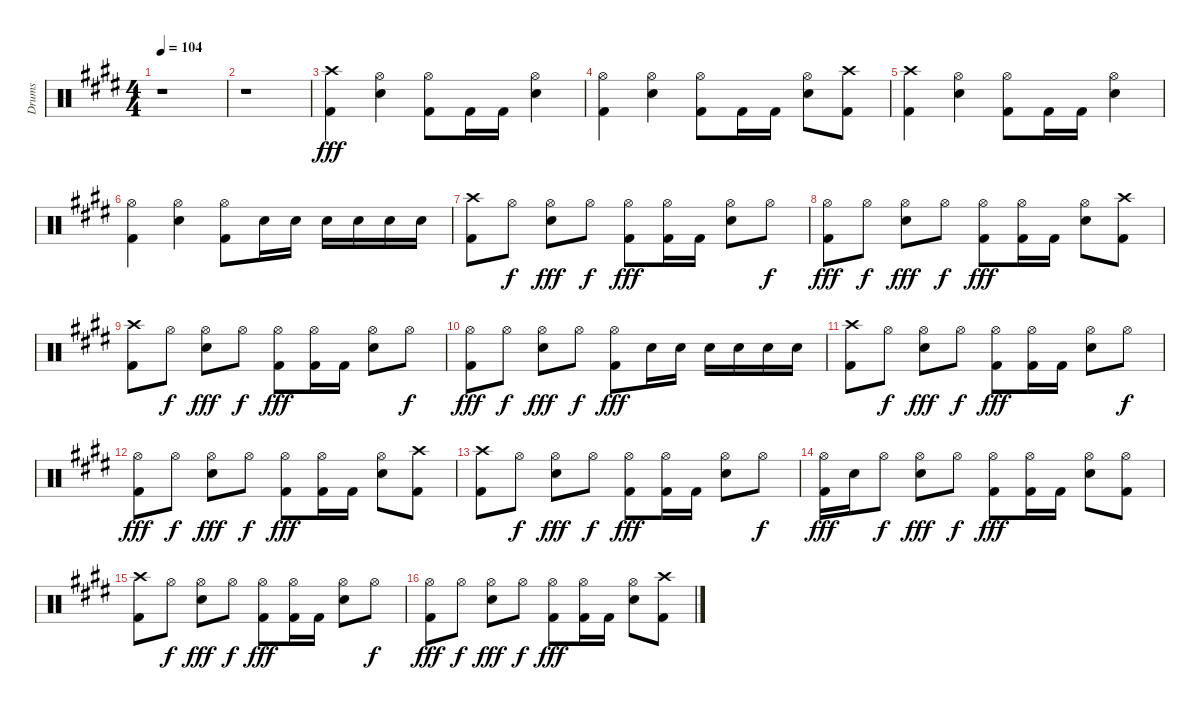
\track ("Drums" "Drums") {instrument percussion}
\staff {score}
\articulation defaults
\ts (4 4)
\tempo 104
\clef neutral
\ks e
r.1{dy fff} |
r.1 |
("Crash high (hit)" "Kick (hit) 2").4 ("Hi-Hat (open)" "Snare (hit) 2").4 ("Hi-Hat (open)" "Kick (hit) 2").8 "Kick (hit) 2".16 "Kick (hit) 2".16 ("Hi-Hat (open)" "Snare (hit) 2").4 |
("Hi-Hat (open)" "Kick (hit) 2").4 ("Hi-Hat (open)" "Snare (hit) 2").4 ("Hi-Hat (open)" "Kick (hit) 2").8 "Kick (hit) 2".16 "Kick (hit) 2".16 ("Hi-Hat (open)" "Snare (hit) 2").8 ("Crash high (hit)" "Kick (hit) 2").8 |
("Crash high (hit)" "Kick (hit) 2").4 ("Hi-Hat (open)" "Snare (hit) 2").4 ("Hi-Hat (open)" "Kick (hit) 2").8 "Kick (hit) 2".16 "Kick (hit) 2".16 ("Hi-Hat (open)" "Snare (hit) 2").4 |
("Hi-Hat (open)" "Kick (hit) 2").4 ("Hi-Hat (open)" "Snare (hit) 2").4 ("Hi-Hat (open)" "Kick (hit) 2").8 "Snare (hit) 2".16 "Snare (hit) 2".16 "Snare (hit) 2".16 "Snare (hit) 2".16 "Snare (hit) 2".16 "Snare (hit) 2".16 |
("Crash high (hit)" "Kick (hit) 2").8 "Hi-Hat (open)".8{dy f} ("Hi-Hat (open)" "Snare (hit) 2").8{dy fff} "Hi-Hat (open)".8{dy f} ("Hi-Hat (open)" "Kick (hit) 2").8{dy fff} ("Hi-Hat (open)" "Kick (hit) 2").16 "Kick (hit) 2".16 ("Hi-Hat (open)" "Snare (hit) 2").8 "Hi-Hat (open)".8{dy f} |
("Hi-Hat (open)" "Kick (hit) 2").8{dy fff} "Hi-Hat (open)".8{dy f} ("Hi-Hat (open)" "Snare (hit) 2").8{dy fff} "Hi-Hat (open)".8{dy f} ("Hi-Hat (open)" "Kick (hit) 2").8{dy fff} ("Hi-Hat (open)" "Kick (hit) 2").16 "Kick (hit) 2".16 ("Hi-Hat (open)" "Snare (hit) 2").8 ("Crash high (hit)" "Kick (hit) 2").8 |
("Crash high (hit)" "Kick (hit) 2").8 "Hi-Hat (open)".8{dy f} ("Hi-Hat (open)" "Snare (hit) 2").8{dy fff} "Hi-Hat (open)".8{dy f} ("Hi-Hat (open)" "Kick (hit) 2").8{dy fff} ("Hi-Hat (open)" "Kick (hit) 2").16 "Kick (hit) 2".16 ("Hi-Hat (open)" "Snare (hit) 2").8 "Hi-Hat (open)".8{dy f} |
("Hi-Hat (open)" "Kick (hit) 2").8{dy fff} "Hi-Hat (open)".8{dy f} ("Hi-Hat (open)" "Snare (hit) 2").8{dy fff} "Hi-Hat (open)".8{dy f} ("Hi-Hat (open)" "Kick (hit) 2").8{dy fff} "Snare (hit) 2".16 "Snare (hit) 2".16 "Snare (hit) 2".16 "Snare (hit) 2".16 "Snare (hit) 2".16 "Snare (hit) 2".16 |
("Crash high (hit)" "Kick (hit) 2").8 "Hi-Hat (open)".8{dy f} ("Hi-Hat (open)" "Snare (hit) 2").8{dy fff} "Hi-Hat (open)".8{dy f} ("Hi-Hat (open)" "Kick (hit) 2").8{dy fff} ("Hi-Hat (open)" "Kick (hit) 2").16 "Kick (hit) 2".16 ("Hi-Hat (open)" "Snare (hit) 2").8 "Hi-Hat (open)".8{dy f} |
("Hi-Hat (open)" "Kick (hit) 2").8{dy fff} "Hi-Hat (open)".8{dy f} ("Hi-Hat (open)" "Snare (hit) 2").8{dy fff} "Hi-Hat (open)".8{dy f} ("Hi-Hat (open)" "Kick (hit) 2").8{dy fff} ("Hi-Hat (open)" "Kick (hit) 2").16 "Kick (hit) 2".16 ("Hi-Hat (open)" "Snare (hit) 2").8 ("Crash high (hit)" "Kick (hit) 2").8 |
("Crash high (hit)" "Kick (hit) 2").8 "Hi-Hat (open)".8{dy f} ("Hi-Hat (open)" "Snare (hit) 2").8{dy fff} "Hi-Hat (open)".8{dy f} ("Hi-Hat (open)" "Kick (hit) 2").8{dy fff} ("Hi-Hat (open)" "Kick (hit) 2").16 "Kick (hit) 2".16 ("Hi-Hat (open)" "Snare (hit) 2").8 "Hi-Hat (open)".8{dy f} |
("Hi-Hat (open)" "Kick (hit) 2").16{dy fff} "Snare (hit) 2".16 "Hi-Hat (open)".8{dy f} ("Hi-Hat (open)" "Snare (hit) 2").8{dy fff} "Hi-Hat (open)".8{dy f} ("Hi-Hat (open)" "Kick (hit) 2").8{dy fff} ("Hi-Hat (open)" "Kick (hit) 2").16 "Kick (hit) 2".16 ("Hi-Hat (open)" "Snare (hit) 2").8 ("Hi-Hat (open)" "Kick (hit) 2").8 |
("Crash high (hit)" "Kick (hit) 2").8 "Hi-Hat (open)".8{dy f} ("Hi-Hat (open)" "Snare (hit) 2").8{dy fff} "Hi-Hat (open)".8{dy f} ("Hi-Hat (open)" "Kick (hit) 2").8{dy fff} ("Hi-Hat (open)" "Kick (hit) 2").16 "Kick (hit) 2".16 ("Hi-Hat (open)" "Snare (hit) 2").8 "Hi-Hat (open)".8{dy f} |
("Hi-Hat (open)" "Kick (hit) 2").8{dy fff} "Hi-Hat (open)".8{dy f} ("Hi-Hat (open)" "Snare (hit) 2").8{dy fff} "Hi-Hat (open)".8{dy f} ("Hi-Hat (open)" "Kick (hit) 2").8{dy fff} ("Hi-Hat (open)" "Kick (hit) 2").16 "Kick (hit) 2".16 ("Hi-Hat (open)" "Snare (hit) 2").8 ("Crash high (hit)" "Kick (hit) 2").8
